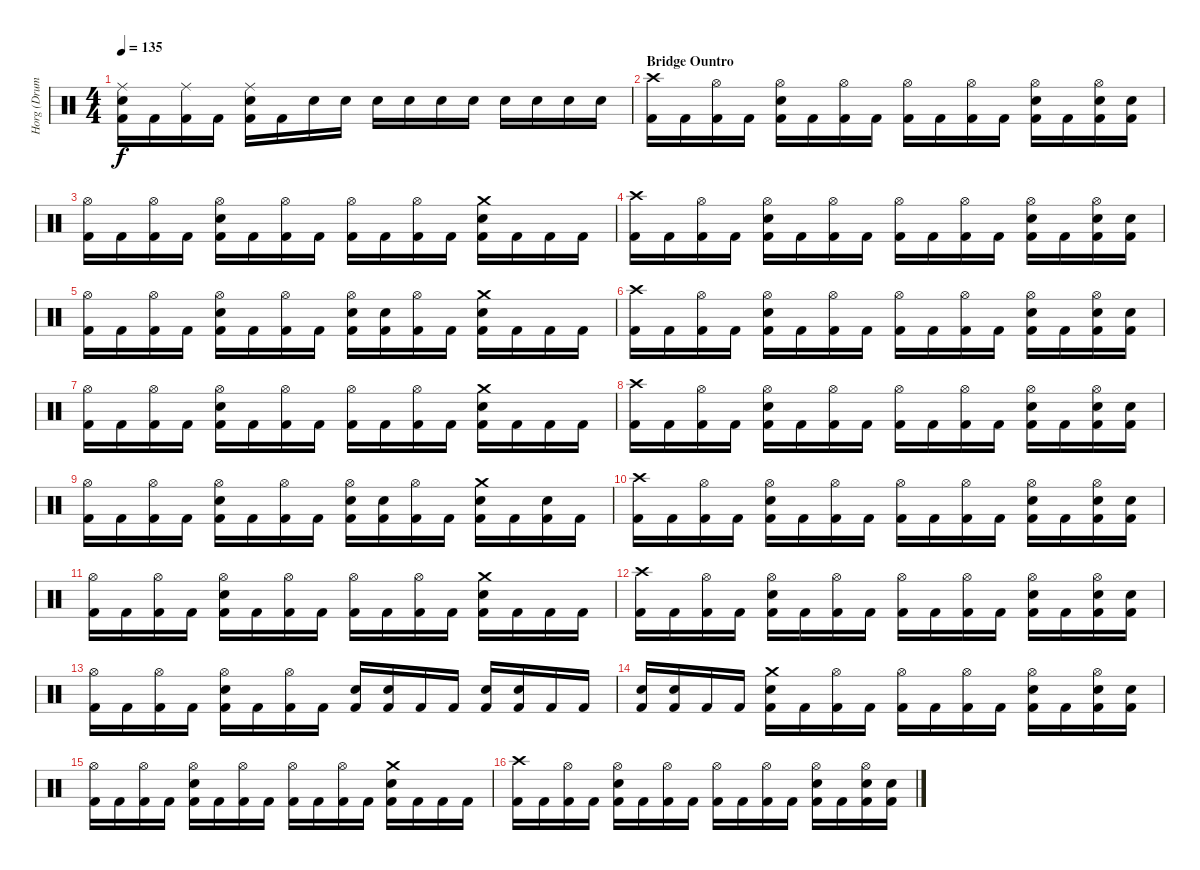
\track ("Horg (Drums)" "Horg (Drum") {instrument percussion}
\staff {score}
\articulation defaults
\ts (4 4)
\tempo 135
\clef neutral
\ks c
("Ride (middle)" "Electric Snare (hit)" "Kick (hit) 2").16{dy f} "Kick (hit) 2".16 ("Ride (middle)" "Kick (hit) 2").16 "Kick (hit) 2".16 ("Ride (middle)" "Electric Snare (hit)" "Kick (hit) 2").16 "Kick (hit) 2".16 "Electric Snare (hit)".16 "Electric Snare (hit)".16 "Electric Snare (hit)".16 "Electric Snare (hit)".16 "Electric Snare (hit)".16 "Electric Snare (hit)".16 "Electric Snare (hit)".16 "Electric Snare (hit)".16 "Electric Snare (hit)".16 "Electric Snare (hit)".16 |
\section ("" "Bridge Ountro")
("Crash high (hit)" "Kick (hit) 2").16 "Kick (hit) 2".16 ("Hi-Hat (open)" "Kick (hit) 2").16 "Kick (hit) 2".16 ("Hi-Hat (open)" "Electric Snare (hit)" "Kick (hit) 2").16 "Kick (hit) 2".16 ("Hi-Hat (open)" "Kick (hit) 2").16 "Kick (hit) 2".16 ("Hi-Hat (open)" "Kick (hit) 2").16 "Kick (hit) 2".16 ("Hi-Hat (open)" "Kick (hit) 2").16 "Kick (hit) 2".16 ("Hi-Hat (open)" "Electric Snare (hit)" "Kick (hit) 2").16 "Kick (hit) 2".16 ("Hi-Hat (open)" "Electric Snare (hit)" "Kick (hit) 2").16 ("Electric Snare (hit)" "Kick (hit) 2").16 |
("Hi-Hat (open)" "Kick (hit) 2").16 "Kick (hit) 2".16 ("Hi-Hat (open)" "Kick (hit) 2").16 "Kick (hit) 2".16 ("Hi-Hat (open)" "Electric Snare (hit)" "Kick (hit) 2").16 "Kick (hit) 2".16 ("Hi-Hat (open)" "Kick (hit) 2").16 "Kick (hit) 2".16 ("Hi-Hat (open)" "Kick (hit) 2").16 "Kick (hit) 2".16 ("Hi-Hat (open)" "Kick (hit) 2").16 "Kick (hit) 2".16 ("Crash medium (hit)" "Electric Snare (hit)" "Kick (hit) 2").16 "Kick (hit) 2".16 "Kick (hit) 2".16 "Kick (hit) 2".16 |
("Crash high (hit)" "Kick (hit) 2").16 "Kick (hit) 2".16 ("Hi-Hat (open)" "Kick (hit) 2").16 "Kick (hit) 2".16 ("Hi-Hat (open)" "Electric Snare (hit)" "Kick (hit) 2").16 "Kick (hit) 2".16 ("Hi-Hat (open)" "Kick (hit) 2").16 "Kick (hit) 2".16 ("Hi-Hat (open)" "Kick (hit) 2").16 "Kick (hit) 2".16 ("Hi-Hat (open)" "Kick (hit) 2").16 "Kick (hit) 2".16 ("Hi-Hat (open)" "Electric Snare (hit)" "Kick (hit) 2").16 "Kick (hit) 2".16 ("Hi-Hat (open)" "Electric Snare (hit)" "Kick (hit) 2").16 ("Electric Snare (hit)" "Kick (hit) 2").16 |
("Hi-Hat (open)" "Kick (hit) 2").16 "Kick (hit) 2".16 ("Hi-Hat (open)" "Kick (hit) 2").16 "Kick (hit) 2".16 ("Hi-Hat (open)" "Electric Snare (hit)" "Kick (hit) 2").16 "Kick (hit) 2".16 ("Hi-Hat (open)" "Kick (hit) 2").16 "Kick (hit) 2".16 ("Hi-Hat (open)" "Electric Snare (hit)" "Kick (hit) 2").16 ("Electric Snare (hit)" "Kick (hit) 2").16 ("Hi-Hat (open)" "Kick (hit) 2").16 "Kick (hit) 2".16 ("Crash medium (hit)" "Electric Snare (hit)" "Kick (hit) 2").16 "Kick (hit) 2".16 "Kick (hit) 2".16 "Kick (hit) 2".16 |
("Crash high (hit)" "Kick (hit) 2").16 "Kick (hit) 2".16 ("Hi-Hat (open)" "Kick (hit) 2").16 "Kick (hit) 2".16 ("Hi-Hat (open)" "Electric Snare (hit)" "Kick (hit) 2").16 "Kick (hit) 2".16 ("Hi-Hat (open)" "Kick (hit) 2").16 "Kick (hit) 2".16 ("Hi-Hat (open)" "Kick (hit) 2").16 "Kick (hit) 2".16 ("Hi-Hat (open)" "Kick (hit) 2").16 "Kick (hit) 2".16 ("Hi-Hat (open)" "Electric Snare (hit)" "Kick (hit) 2").16 "Kick (hit) 2".16 ("Hi-Hat (open)" "Electric Snare (hit)" "Kick (hit) 2").16 ("Electric Snare (hit)" "Kick (hit) 2").16 |
("Hi-Hat (open)" "Kick (hit) 2").16 "Kick (hit) 2".16 ("Hi-Hat (open)" "Kick (hit) 2").16 "Kick (hit) 2".16 ("Hi-Hat (open)" "Electric Snare (hit)" "Kick (hit) 2").16 "Kick (hit) 2".16 ("Hi-Hat (open)" "Kick (hit) 2").16 "Kick (hit) 2".16 ("Hi-Hat (open)" "Kick (hit) 2").16 "Kick (hit) 2".16 ("Hi-Hat (open)" "Kick (hit) 2").16 "Kick (hit) 2".16 ("Crash medium (hit)" "Electric Snare (hit)" "Kick (hit) 2").16 "Kick (hit) 2".16 "Kick (hit) 2".16 "Kick (hit) 2".16 |
("Crash high (hit)" "Kick (hit) 2").16 "Kick (hit) 2".16 ("Hi-Hat (open)" "Kick (hit) 2").16 "Kick (hit) 2".16 ("Hi-Hat (open)" "Electric Snare (hit)" "Kick (hit) 2").16 "Kick (hit) 2".16 ("Hi-Hat (open)" "Kick (hit) 2").16 "Kick (hit) 2".16 ("Hi-Hat (open)" "Kick (hit) 2").16 "Kick (hit) 2".16 ("Hi-Hat (open)" "Kick (hit) 2").16 "Kick (hit) 2".16 ("Hi-Hat (open)" "Electric Snare (hit)" "Kick (hit) 2").16 "Kick (hit) 2".16 ("Hi-Hat (open)" "Electric Snare (hit)" "Kick (hit) 2").16 ("Electric Snare (hit)" "Kick (hit) 2").16 |
("Hi-Hat (open)" "Kick (hit) 2").16 "Kick (hit) 2".16 ("Hi-Hat (open)" "Kick (hit) 2").16 "Kick (hit) 2".16 ("Hi-Hat (open)" "Electric Snare (hit)" "Kick (hit) 2").16 "Kick (hit) 2".16 ("Hi-Hat (open)" "Kick (hit) 2").16 "Kick (hit) 2".16 ("Hi-Hat (open)" "Electric Snare (hit)" "Kick (hit) 2").16 ("Electric Snare (hit)" "Kick (hit) 2").16 ("Hi-Hat (open)" "Kick (hit) 2").16 "Kick (hit) 2".16 ("Crash medium (hit)" "Electric Snare (hit)" "Kick (hit) 2").16 "Kick (hit) 2".16 ("Electric Snare (hit)" "Kick (hit) 2").16 "Kick (hit) 2".16 |
("Crash high (hit)" "Kick (hit) 2").16 "Kick (hit) 2".16 ("Hi-Hat (open)" "Kick (hit) 2").16 "Kick (hit) 2".16 ("Hi-Hat (open)" "Electric Snare (hit)" "Kick (hit) 2").16 "Kick (hit) 2".16 ("Hi-Hat (open)" "Kick (hit) 2").16 "Kick (hit) 2".16 ("Hi-Hat (open)" "Kick (hit) 2").16 "Kick (hit) 2".16 ("Hi-Hat (open)" "Kick (hit) 2").16 "Kick (hit) 2".16 ("Hi-Hat (open)" "Electric Snare (hit)" "Kick (hit) 2").16 "Kick (hit) 2".16 ("Hi-Hat (open)" "Electric Snare (hit)" "Kick (hit) 2").16 ("Electric Snare (hit)" "Kick (hit) 2").16 |
("Hi-Hat (open)" "Kick (hit) 2").16 "Kick (hit) 2".16 ("Hi-Hat (open)" "Kick (hit) 2").16 "Kick (hit) 2".16 ("Hi-Hat (open)" "Electric Snare (hit)" "Kick (hit) 2").16 "Kick (hit) 2".16 ("Hi-Hat (open)" "Kick (hit) 2").16 "Kick (hit) 2".16 ("Hi-Hat (open)" "Kick (hit) 2").16 "Kick (hit) 2".16 ("Hi-Hat (open)" "Kick (hit) 2").16 "Kick (hit) 2".16 ("Crash medium (hit)" "Electric Snare (hit)" "Kick (hit) 2").16 "Kick (hit) 2".16 "Kick (hit) 2".16 "Kick (hit) 2".16 |
("Crash high (hit)" "Kick (hit) 2").16 "Kick (hit) 2".16 ("Hi-Hat (open)" "Kick (hit) 2").16 "Kick (hit) 2".16 ("Hi-Hat (open)" "Electric Snare (hit)" "Kick (hit) 2").16 "Kick (hit) 2".16 ("Hi-Hat (open)" "Kick (hit) 2").16 "Kick (hit) 2".16 ("Hi-Hat (open)" "Kick (hit) 2").16 "Kick (hit) 2".16 ("Hi-Hat (open)" "Kick (hit) 2").16 "Kick (hit) 2".16 ("Hi-Hat (open)" "Electric Snare (hit)" "Kick (hit) 2").16 "Kick (hit) 2".16 ("Hi-Hat (open)" "Electric Snare (hit)" "Kick (hit) 2").16 ("Electric Snare (hit)" "Kick (hit) 2").16 |
("Hi-Hat (open)" "Kick (hit) 2").16 "Kick (hit) 2".16 ("Hi-Hat (open)" "Kick (hit) 2").16 "Kick (hit) 2".16 ("Hi-Hat (open)" "Electric Snare (hit)" "Kick (hit) 2").16 "Kick (hit) 2".16 ("Hi-Hat (open)" "Kick (hit) 2").16 "Kick (hit) 2".16 ("Electric Snare (hit)" "Kick (hit) 2").16 ("Electric Snare (hit)" "Kick (hit) 2").16 "Kick (hit) 2".16 "Kick (hit) 2".16 ("Electric Snare (hit)" "Kick (hit) 2").16 ("Electric Snare (hit)" "Kick (hit) 2").16 "Kick (hit) 2".16 "Kick (hit) 2".16 |
("Electric Snare (hit)" "Kick (hit) 2").16 ("Electric Snare (hit)" "Kick (hit) 2").16 "Kick (hit) 2".16 "Kick (hit) 2".16 ("Crash medium (hit)" "Electric Snare (hit)" "Kick (hit) 2").16 "Kick (hit) 2".16 ("Hi-Hat (open)" "Kick (hit) 2").16 "Kick (hit) 2".16 ("Hi-Hat (open)" "Kick (hit) 2").16 "Kick (hit) 2".16 ("Hi-Hat (open)" "Kick (hit) 2").16 "Kick (hit) 2".16 ("Hi-Hat (open)" "Electric Snare (hit)" "Kick (hit) 2").16 "Kick (hit) 2".16 ("Hi-Hat (open)" "Electric Snare (hit)" "Kick (hit) 2").16 ("Electric Snare (hit)" "Kick (hit) 2").16 |
("Hi-Hat (open)" "Kick (hit) 2").16 "Kick (hit) 2".16 ("Hi-Hat (open)" "Kick (hit) 2").16 "Kick (hit) 2".16 ("Hi-Hat (open)" "Electric Snare (hit)" "Kick (hit) 2").16 "Kick (hit) 2".16 ("Hi-Hat (open)" "Kick (hit) 2").16 "Kick (hit) 2".16 ("Hi-Hat (open)" "Kick (hit) 2").16 "Kick (hit) 2".16 ("Hi-Hat (open)" "Kick (hit) 2").16 "Kick (hit) 2".16 ("Crash medium (hit)" "Electric Snare (hit)" "Kick (hit) 2").16 "Kick (hit) 2".16 "Kick (hit) 2".16 "Kick (hit) 2".16 |
("Crash high (hit)" "Kick (hit) 2").16 "Kick (hit) 2".16 ("Hi-Hat (open)" "Kick (hit) 2").16 "Kick (hit) 2".16 ("Hi-Hat (open)" "Electric Snare (hit)" "Kick (hit) 2").16 "Kick (hit) 2".16 ("Hi-Hat (open)" "Kick (hit) 2").16 "Kick (hit) 2".16 ("Hi-Hat (open)" "Kick (hit) 2").16 "Kick (hit) 2".16 ("Hi-Hat (open)" "Kick (hit) 2").16 "Kick (hit) 2".16 ("Hi-Hat (open)" "Electric Snare (hit)" "Kick (hit) 2").16 "Kick (hit) 2".16 ("Hi-Hat (open)" "Electric Snare (hit)" "Kick (hit) 2").16 ("Electric Snare (hit)" "Kick (hit) 2").16
